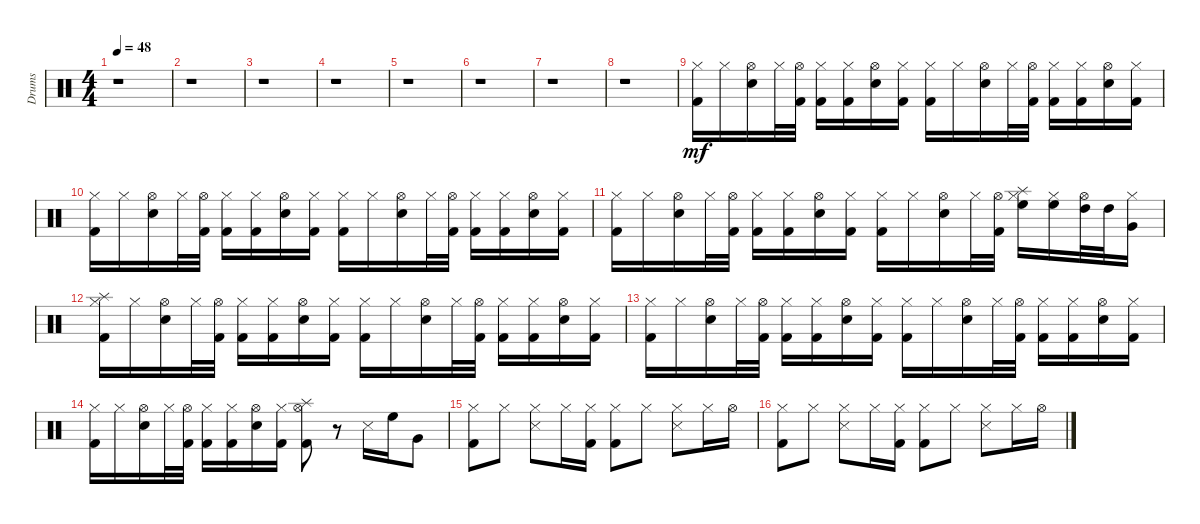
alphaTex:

\track ("Drums" "Drums") {instrument percussion}
\staff {score}
\articulation defaults
\ts (4 4)
\tempo 48
\clef neutral
\ks c
r.1{dy mf} |
r.1 |
r.1 |
r.1 |
r.1 |
r.1 |
r.1 |
r.1 |
("Hi-Hat (closed)" "Kick (hit) 2").16 "Hi-Hat (closed)".16 ("Hi-Hat (open)" "Snare (hit) 2").16 "Hi-Hat (closed)".32 ("Kick (hit) 2" "Hi-Hat (open)").32 ("Kick (hit) 2" "Hi-Hat (closed)").16 ("Kick (hit) 2" "Hi-Hat (closed)").16 ("Hi-Hat (open)" "Snare (hit) 2").16 ("Hi-Hat (closed)" "Kick (hit) 2").16 ("Hi-Hat (closed)" "Kick (hit) 2").16 "Hi-Hat (closed)".16 ("Hi-Hat (open)" "Snare (hit) 2").16 "Hi-Hat (closed)".32 ("Hi-Hat (open)" "Kick (hit) 2").32 ("Kick (hit) 2" "Hi-Hat (closed)").16 ("Hi-Hat (closed)" "Kick (hit) 2").16 ("Snare (hit) 2" "Hi-Hat (open)").16 ("Kick (hit) 2" "Hi-Hat (closed)").16 |
("Hi-Hat (closed)" "Kick (hit) 2").16 "Hi-Hat (closed)".16 ("Hi-Hat (open)" "Snare (hit) 2").16 "Hi-Hat (closed)".32 ("Kick (hit) 2" "Hi-Hat (open)").32 ("Hi-Hat (closed)" "Kick (hit) 2").16 ("Kick (hit) 2" "Hi-Hat (closed)").16 ("Hi-Hat (open)" "Snare (hit) 2").16 ("Hi-Hat (closed)" "Kick (hit) 2").16 ("Hi-Hat (closed)" "Kick (hit) 2").16 "Hi-Hat (closed)".16 ("Hi-Hat (open)" "Snare (hit) 2").16 "Hi-Hat (closed)".32 ("Kick (hit) 2" "Hi-Hat (open)").32 ("Hi-Hat (closed)" "Kick (hit) 2").16 ("Hi-Hat (closed)" "Kick (hit) 2").16 ("Snare (hit) 2" "Hi-Hat (open)").16 ("Kick (hit) 2" "Hi-Hat (closed)").16 |
("Hi-Hat (closed)" "Kick (hit) 2").16 "Hi-Hat (closed)".16 ("Snare (hit) 2" "Hi-Hat (open)").16 "Hi-Hat (closed)".32 ("Hi-Hat (open)" "Kick (hit) 2").32 ("Kick (hit) 2" "Hi-Hat (closed)").16 ("Hi-Hat (closed)" "Kick (hit) 2").16 ("Snare (hit) 2" "Hi-Hat (open)").16 ("Hi-Hat (closed)" "Kick (hit) 2").16 ("Hi-Hat (closed)" "Kick (hit) 2").16 "Hi-Hat (closed)".16 ("Snare (hit) 2" "Hi-Hat (open)").16 "Hi-Hat (closed)".32 ("Hi-Hat (open)" "Kick (hit) 2").32 ("Splash (hit)" "High Floor Tom (hit)" "Hi-Hat (closed)").16 ("High Floor Tom (hit)" "Hi-Hat (closed)").16 ("High Tom (hit)" "Hi-Hat (open)").32 "High Tom (hit)".32 ("Very Low Tom (hit)" "Hi-Hat (closed)").16 |
("Hi-Hat (closed)" "Kick (hit) 2" "Splash (hit)").16 "Hi-Hat (closed)".16 ("Hi-Hat (open)" "Snare (hit) 2").16 "Hi-Hat (closed)".32 ("Hi-Hat (open)" "Kick (hit) 2").32 ("Kick (hit) 2" "Hi-Hat (closed)").16 ("Kick (hit) 2" "Hi-Hat (closed)").16 ("Snare (hit) 2" "Hi-Hat (open)").16 ("Hi-Hat (closed)" "Kick (hit) 2").16 ("Kick (hit) 2" "Hi-Hat (closed)").16 "Hi-Hat (closed)".16 ("Hi-Hat (open)" "Snare (hit) 2").16 "Hi-Hat (closed)".32 ("Kick (hit) 2" "Hi-Hat (open)").32 ("Hi-Hat (closed)" "Kick (hit) 2").16 ("Kick (hit) 2" "Hi-Hat (closed)").16 ("Snare (hit) 2" "Hi-Hat (open)").16 ("Hi-Hat (closed)" "Kick (hit) 2").16 |
("Hi-Hat (closed)" "Kick (hit) 2").16 "Hi-Hat (closed)".16 ("Hi-Hat (open)" "Snare (hit) 2").16 "Hi-Hat (closed)".32 ("Kick (hit) 2" "Hi-Hat (open)").32 ("Hi-Hat (closed)" "Kick (hit) 2").16 ("Hi-Hat (closed)" "Kick (hit) 2").16 ("Snare (hit) 2" "Hi-Hat (open)").16 ("Hi-Hat (closed)" "Kick (hit) 2").16 ("Kick (hit) 2" "Hi-Hat (closed)").16 "Hi-Hat (closed)".16 ("Hi-Hat (open)" "Snare (hit) 2").16 "Hi-Hat (closed)".32 ("Hi-Hat (open)" "Kick (hit) 2").32 ("Kick (hit) 2" "Hi-Hat (closed)").16 ("Hi-Hat (closed)" "Kick (hit) 2").16 ("Hi-Hat (open)" "Snare (hit) 2").16 ("Hi-Hat (closed)" "Kick (hit) 2").16 |
("Hi-Hat (closed)" "Kick (hit) 2").16 "Hi-Hat (closed)".16 ("Snare (hit) 2" "Hi-Hat (open)").16 "Hi-Hat (closed)".32 ("Hi-Hat (open)" "Kick (hit) 2").32 ("Kick (hit) 2" "Hi-Hat (closed)").16 ("Kick (hit) 2" "Hi-Hat (closed)").16 ("Hi-Hat (open)" "Snare (hit) 2").16 ("Kick (hit) 2" "Hi-Hat (closed)").16 ("Kick (hit) 2" "Hi-Hat (open)" "Splash (hit)").8 r.8 "Snare (side stick) 3".16 "High Floor Tom (hit)".16 "Very Low Tom (hit)".8 |
("Hi-Hat (closed)" "Kick (hit) 2").8 "Hi-Hat (closed)".8 ("Snare (side stick) 3" "Hi-Hat (closed)").8 "Hi-Hat (closed)".16 ("Hi-Hat (closed)" "Kick (hit) 2").16 ("Hi-Hat (closed)" "Kick (hit) 2").8 "Hi-Hat (closed)".8 ("Hi-Hat (closed)" "Snare (side stick) 3").8 "Hi-Hat (closed)".16 "Hi-Hat (open)".16 |
("Hi-Hat (closed)" "Kick (hit) 2").8 "Hi-Hat (closed)".8 ("Hi-Hat (closed)" "Snare (side stick) 3").8 "Hi-Hat (closed)".16 ("Kick (hit) 2" "Hi-Hat (closed)").16 ("Kick (hit) 2" "Hi-Hat (closed)").8 "Hi-Hat (closed)".8 ("Hi-Hat (closed)" "Snare (side stick) 3").8 "Hi-Hat (closed)".16 "Hi-Hat (open)".16
